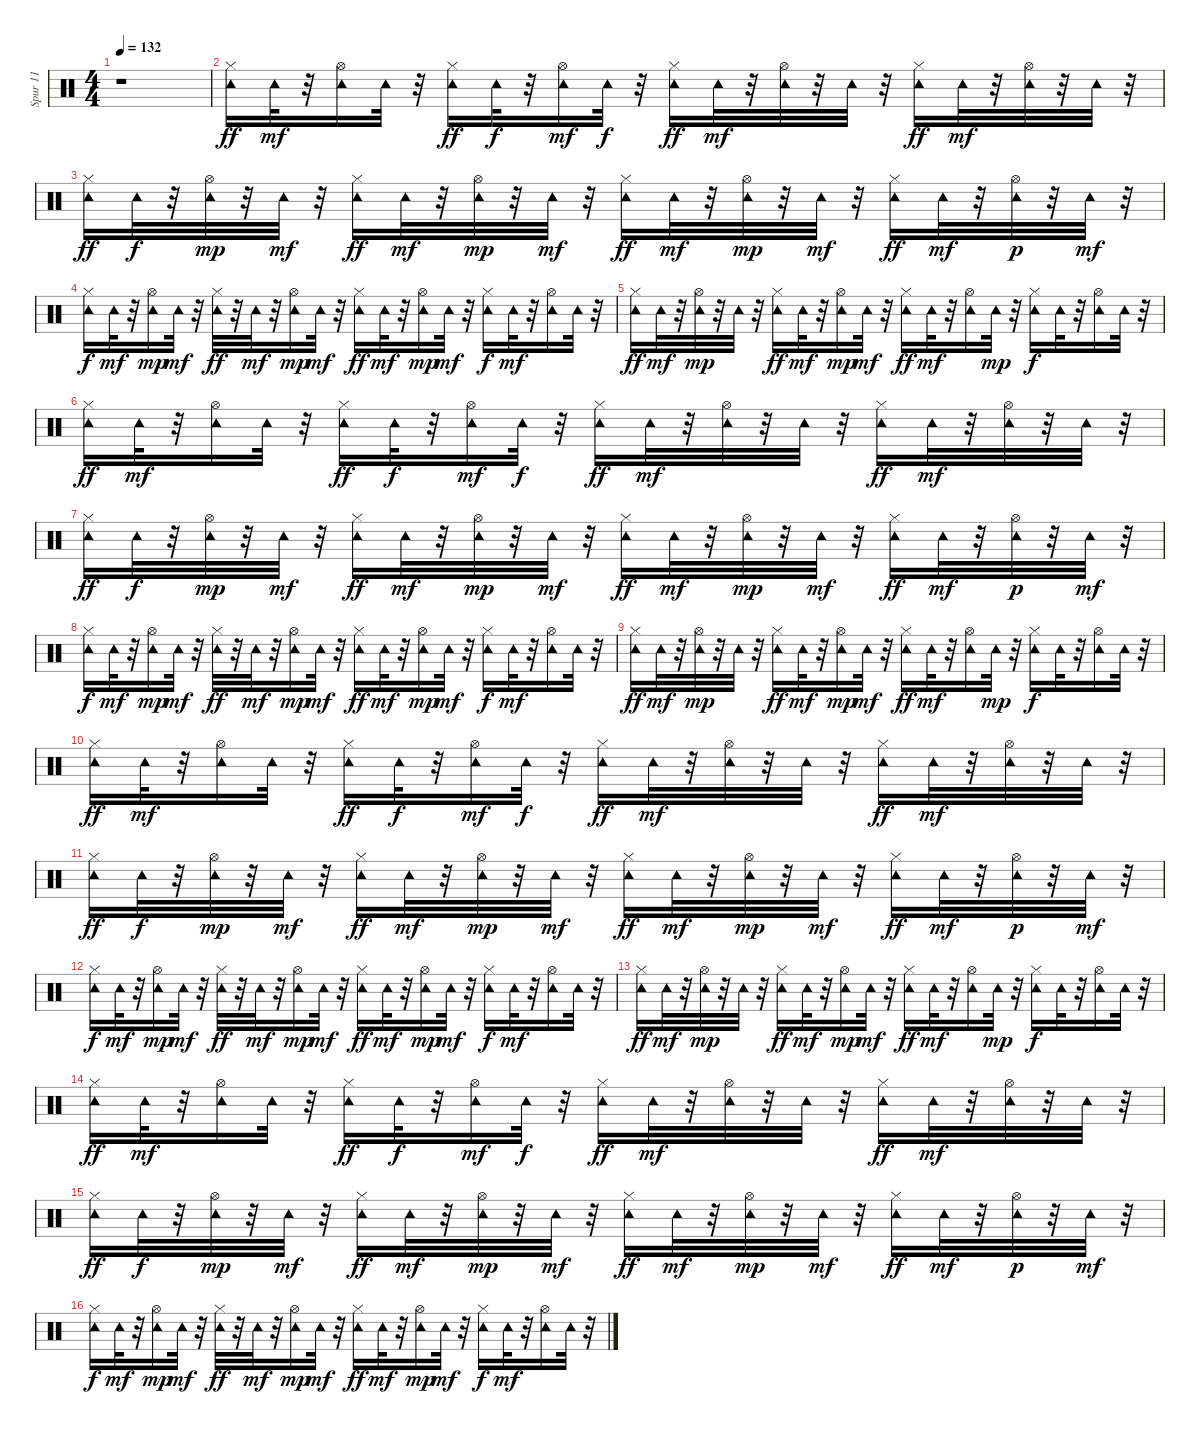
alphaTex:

\track ("Spur 11" "Spur 11") {instrument percussion}
\staff {score}
\articulation defaults
\ts (4 4)
\tempo 132
\clef neutral
\ks c
r.1{dy ff} |
("Tambourine (hit)" "Hi-Hat (closed)").16 "Tambourine (hit)".32{dy mf} r.32 ("Tambourine (hit)" "Hi-Hat (open)").16 "Tambourine (hit)".32 r.32 ("Tambourine (hit)" "Hi-Hat (closed)").16{dy ff} "Tambourine (hit)".32{dy f} r.32 ("Tambourine (hit)" "Hi-Hat (open)").16{dy mf} "Tambourine (hit)".32{dy f} r.32 ("Tambourine (hit)" "Hi-Hat (closed)").16{dy ff} "Tambourine (hit)".32{dy mf} r.32 ("Tambourine (hit)" "Hi-Hat (open)").32 r.32 "Tambourine (hit)".32 r.32 ("Tambourine (hit)" "Hi-Hat (closed)").16{dy ff} "Tambourine (hit)".32{dy mf} r.32 ("Tambourine (hit)" "Hi-Hat (open)").32 r.32 "Tambourine (hit)".32 r.32 |
("Tambourine (hit)" "Hi-Hat (closed)").16{dy ff} "Tambourine (hit)".32{dy f} r.32 ("Tambourine (hit)" "Hi-Hat (open)").32{dy mp} r.32 "Tambourine (hit)".32{dy mf} r.32 ("Tambourine (hit)" "Hi-Hat (closed)").16{dy ff} "Tambourine (hit)".32{dy mf} r.32 ("Tambourine (hit)" "Hi-Hat (open)").32{dy mp} r.32 "Tambourine (hit)".32{dy mf} r.32 ("Tambourine (hit)" "Hi-Hat (closed)").16{dy ff} "Tambourine (hit)".32{dy mf} r.32 ("Tambourine (hit)" "Hi-Hat (open)").32{dy mp} r.32 "Tambourine (hit)".32{dy mf} r.32 ("Tambourine (hit)" "Hi-Hat (closed)").16{dy ff} "Tambourine (hit)".32{dy mf} r.32 ("Tambourine (hit)" "Hi-Hat (open)").32{dy p} r.32 "Tambourine (hit)".32{dy mf} r.32 |
("Tambourine (hit)" "Hi-Hat (closed)").16{dy f} "Tambourine (hit)".32{dy mf} r.32 ("Tambourine (hit)" "Hi-Hat (open)").16{dy mp} "Tambourine (hit)".32{dy mf} r.32 ("Tambourine (hit)" "Hi-Hat (closed)").32{dy ff} r.32 "Tambourine (hit)".32{dy mf} r.32 ("Tambourine (hit)" "Hi-Hat (open)").16{dy mp} "Tambourine (hit)".32{dy mf} r.32 ("Tambourine (hit)" "Hi-Hat (closed)").16{dy ff} "Tambourine (hit)".32{dy mf} r.32 ("Tambourine (hit)" "Hi-Hat (open)").16{dy mp} "Tambourine (hit)".32{dy mf} r.32 ("Tambourine (hit)" "Hi-Hat (closed)").16{dy f} "Tambourine (hit)".32{dy mf} r.32 ("Tambourine (hit)" "Hi-Hat (open)").16 "Tambourine (hit)".32 r.32 |
("Tambourine (hit)" "Hi-Hat (closed)").16{dy ff} "Tambourine (hit)".32{dy mf} r.32 ("Tambourine (hit)" "Hi-Hat (open)").32{dy mp} r.32 "Tambourine (hit)".32 r.32 ("Tambourine (hit)" "Hi-Hat (closed)").16{dy ff} "Tambourine (hit)".32{dy mf} r.32 ("Tambourine (hit)" "Hi-Hat (open)").16{dy mp} "Tambourine (hit)".32{dy mf} r.32 ("Tambourine (hit)" "Hi-Hat (closed)").16{dy ff} "Tambourine (hit)".32{dy mf} r.32 ("Tambourine (hit)" "Hi-Hat (open)").16 "Tambourine (hit)".32{dy mp} r.32 ("Tambourine (hit)" "Hi-Hat (closed)").16{dy f} "Tambourine (hit)".32 r.32 ("Tambourine (hit)" "Hi-Hat (open)").16 "Tambourine (hit)".32 r.32 |
("Tambourine (hit)" "Hi-Hat (closed)").16{dy ff} "Tambourine (hit)".32{dy mf} r.32 ("Tambourine (hit)" "Hi-Hat (open)").16 "Tambourine (hit)".32 r.32 ("Tambourine (hit)" "Hi-Hat (closed)").16{dy ff} "Tambourine (hit)".32{dy f} r.32 ("Tambourine (hit)" "Hi-Hat (open)").16{dy mf} "Tambourine (hit)".32{dy f} r.32 ("Tambourine (hit)" "Hi-Hat (closed)").16{dy ff} "Tambourine (hit)".32{dy mf} r.32 ("Tambourine (hit)" "Hi-Hat (open)").32 r.32 "Tambourine (hit)".32 r.32 ("Tambourine (hit)" "Hi-Hat (closed)").16{dy ff} "Tambourine (hit)".32{dy mf} r.32 ("Tambourine (hit)" "Hi-Hat (open)").32 r.32 "Tambourine (hit)".32 r.32 |
("Tambourine (hit)" "Hi-Hat (closed)").16{dy ff} "Tambourine (hit)".32{dy f} r.32 ("Tambourine (hit)" "Hi-Hat (open)").32{dy mp} r.32 "Tambourine (hit)".32{dy mf} r.32 ("Tambourine (hit)" "Hi-Hat (closed)").16{dy ff} "Tambourine (hit)".32{dy mf} r.32 ("Tambourine (hit)" "Hi-Hat (open)").32{dy mp} r.32 "Tambourine (hit)".32{dy mf} r.32 ("Tambourine (hit)" "Hi-Hat (closed)").16{dy ff} "Tambourine (hit)".32{dy mf} r.32 ("Tambourine (hit)" "Hi-Hat (open)").32{dy mp} r.32 "Tambourine (hit)".32{dy mf} r.32 ("Tambourine (hit)" "Hi-Hat (closed)").16{dy ff} "Tambourine (hit)".32{dy mf} r.32 ("Tambourine (hit)" "Hi-Hat (open)").32{dy p} r.32 "Tambourine (hit)".32{dy mf} r.32 |
("Tambourine (hit)" "Hi-Hat (closed)").16{dy f} "Tambourine (hit)".32{dy mf} r.32 ("Tambourine (hit)" "Hi-Hat (open)").16{dy mp} "Tambourine (hit)".32{dy mf} r.32 ("Tambourine (hit)" "Hi-Hat (closed)").32{dy ff} r.32 "Tambourine (hit)".32{dy mf} r.32 ("Tambourine (hit)" "Hi-Hat (open)").16{dy mp} "Tambourine (hit)".32{dy mf} r.32 ("Tambourine (hit)" "Hi-Hat (closed)").16{dy ff} "Tambourine (hit)".32{dy mf} r.32 ("Tambourine (hit)" "Hi-Hat (open)").16{dy mp} "Tambourine (hit)".32{dy mf} r.32 ("Tambourine (hit)" "Hi-Hat (closed)").16{dy f} "Tambourine (hit)".32{dy mf} r.32 ("Tambourine (hit)" "Hi-Hat (open)").16 "Tambourine (hit)".32 r.32 |
("Tambourine (hit)" "Hi-Hat (closed)").16{dy ff} "Tambourine (hit)".32{dy mf} r.32 ("Tambourine (hit)" "Hi-Hat (open)").32{dy mp} r.32 "Tambourine (hit)".32 r.32 ("Tambourine (hit)" "Hi-Hat (closed)").16{dy ff} "Tambourine (hit)".32{dy mf} r.32 ("Tambourine (hit)" "Hi-Hat (open)").16{dy mp} "Tambourine (hit)".32{dy mf} r.32 ("Tambourine (hit)" "Hi-Hat (closed)").16{dy ff} "Tambourine (hit)".32{dy mf} r.32 ("Tambourine (hit)" "Hi-Hat (open)").16 "Tambourine (hit)".32{dy mp} r.32 ("Tambourine (hit)" "Hi-Hat (closed)").16{dy f} "Tambourine (hit)".32 r.32 ("Tambourine (hit)" "Hi-Hat (open)").16 "Tambourine (hit)".32 r.32 |
("Tambourine (hit)" "Hi-Hat (closed)").16{dy ff} "Tambourine (hit)".32{dy mf} r.32 ("Tambourine (hit)" "Hi-Hat (open)").16 "Tambourine (hit)".32 r.32 ("Tambourine (hit)" "Hi-Hat (closed)").16{dy ff} "Tambourine (hit)".32{dy f} r.32 ("Tambourine (hit)" "Hi-Hat (open)").16{dy mf} "Tambourine (hit)".32{dy f} r.32 ("Tambourine (hit)" "Hi-Hat (closed)").16{dy ff} "Tambourine (hit)".32{dy mf} r.32 ("Tambourine (hit)" "Hi-Hat (open)").32 r.32 "Tambourine (hit)".32 r.32 ("Tambourine (hit)" "Hi-Hat (closed)").16{dy ff} "Tambourine (hit)".32{dy mf} r.32 ("Tambourine (hit)" "Hi-Hat (open)").32 r.32 "Tambourine (hit)".32 r.32 |
("Tambourine (hit)" "Hi-Hat (closed)").16{dy ff} "Tambourine (hit)".32{dy f} r.32 ("Tambourine (hit)" "Hi-Hat (open)").32{dy mp} r.32 "Tambourine (hit)".32{dy mf} r.32 ("Tambourine (hit)" "Hi-Hat (closed)").16{dy ff} "Tambourine (hit)".32{dy mf} r.32 ("Tambourine (hit)" "Hi-Hat (open)").32{dy mp} r.32 "Tambourine (hit)".32{dy mf} r.32 ("Tambourine (hit)" "Hi-Hat (closed)").16{dy ff} "Tambourine (hit)".32{dy mf} r.32 ("Tambourine (hit)" "Hi-Hat (open)").32{dy mp} r.32 "Tambourine (hit)".32{dy mf} r.32 ("Tambourine (hit)" "Hi-Hat (closed)").16{dy ff} "Tambourine (hit)".32{dy mf} r.32 ("Tambourine (hit)" "Hi-Hat (open)").32{dy p} r.32 "Tambourine (hit)".32{dy mf} r.32 |
("Tambourine (hit)" "Hi-Hat (closed)").16{dy f} "Tambourine (hit)".32{dy mf} r.32 ("Tambourine (hit)" "Hi-Hat (open)").16{dy mp} "Tambourine (hit)".32{dy mf} r.32 ("Tambourine (hit)" "Hi-Hat (closed)").32{dy ff} r.32 "Tambourine (hit)".32{dy mf} r.32 ("Tambourine (hit)" "Hi-Hat (open)").16{dy mp} "Tambourine (hit)".32{dy mf} r.32 ("Tambourine (hit)" "Hi-Hat (closed)").16{dy ff} "Tambourine (hit)".32{dy mf} r.32 ("Tambourine (hit)" "Hi-Hat (open)").16{dy mp} "Tambourine (hit)".32{dy mf} r.32 ("Tambourine (hit)" "Hi-Hat (closed)").16{dy f} "Tambourine (hit)".32{dy mf} r.32 ("Tambourine (hit)" "Hi-Hat (open)").16 "Tambourine (hit)".32 r.32 |
("Tambourine (hit)" "Hi-Hat (closed)").16{dy ff} "Tambourine (hit)".32{dy mf} r.32 ("Tambourine (hit)" "Hi-Hat (open)").32{dy mp} r.32 "Tambourine (hit)".32 r.32 ("Tambourine (hit)" "Hi-Hat (closed)").16{dy ff} "Tambourine (hit)".32{dy mf} r.32 ("Tambourine (hit)" "Hi-Hat (open)").16{dy mp} "Tambourine (hit)".32{dy mf} r.32 ("Tambourine (hit)" "Hi-Hat (closed)").16{dy ff} "Tambourine (hit)".32{dy mf} r.32 ("Tambourine (hit)" "Hi-Hat (open)").16 "Tambourine (hit)".32{dy mp} r.32 ("Tambourine (hit)" "Hi-Hat (closed)").16{dy f} "Tambourine (hit)".32 r.32 ("Tambourine (hit)" "Hi-Hat (open)").16 "Tambourine (hit)".32 r.32 |
("Tambourine (hit)" "Hi-Hat (closed)").16{dy ff} "Tambourine (hit)".32{dy mf} r.32 ("Tambourine (hit)" "Hi-Hat (open)").16 "Tambourine (hit)".32 r.32 ("Tambourine (hit)" "Hi-Hat (closed)").16{dy ff} "Tambourine (hit)".32{dy f} r.32 ("Tambourine (hit)" "Hi-Hat (open)").16{dy mf} "Tambourine (hit)".32{dy f} r.32 ("Tambourine (hit)" "Hi-Hat (closed)").16{dy ff} "Tambourine (hit)".32{dy mf} r.32 ("Tambourine (hit)" "Hi-Hat (open)").32 r.32 "Tambourine (hit)".32 r.32 ("Tambourine (hit)" "Hi-Hat (closed)").16{dy ff} "Tambourine (hit)".32{dy mf} r.32 ("Tambourine (hit)" "Hi-Hat (open)").32 r.32 "Tambourine (hit)".32 r.32 |
("Tambourine (hit)" "Hi-Hat (closed)").16{dy ff} "Tambourine (hit)".32{dy f} r.32 ("Tambourine (hit)" "Hi-Hat (open)").32{dy mp} r.32 "Tambourine (hit)".32{dy mf} r.32 ("Tambourine (hit)" "Hi-Hat (closed)").16{dy ff} "Tambourine (hit)".32{dy mf} r.32 ("Tambourine (hit)" "Hi-Hat (open)").32{dy mp} r.32 "Tambourine (hit)".32{dy mf} r.32 ("Tambourine (hit)" "Hi-Hat (closed)").16{dy ff} "Tambourine (hit)".32{dy mf} r.32 ("Tambourine (hit)" "Hi-Hat (open)").32{dy mp} r.32 "Tambourine (hit)".32{dy mf} r.32 ("Tambourine (hit)" "Hi-Hat (closed)").16{dy ff} "Tambourine (hit)".32{dy mf} r.32 ("Tambourine (hit)" "Hi-Hat (open)").32{dy p} r.32 "Tambourine (hit)".32{dy mf} r.32 |
("Tambourine (hit)" "Hi-Hat (closed)").16{dy f} "Tambourine (hit)".32{dy mf} r.32 ("Tambourine (hit)" "Hi-Hat (open)").16{dy mp} "Tambourine (hit)".32{dy mf} r.32 ("Tambourine (hit)" "Hi-Hat (closed)").32{dy ff} r.32 "Tambourine (hit)".32{dy mf} r.32 ("Tambourine (hit)" "Hi-Hat (open)").16{dy mp} "Tambourine (hit)".32{dy mf} r.32 ("Tambourine (hit)" "Hi-Hat (closed)").16{dy ff} "Tambourine (hit)".32{dy mf} r.32 ("Tambourine (hit)" "Hi-Hat (open)").16{dy mp} "Tambourine (hit)".32{dy mf} r.32 ("Tambourine (hit)" "Hi-Hat (closed)").16{dy f} "Tambourine (hit)".32{dy mf} r.32 ("Tambourine (hit)" "Hi-Hat (open)").16 "Tambourine (hit)".32 r.32
